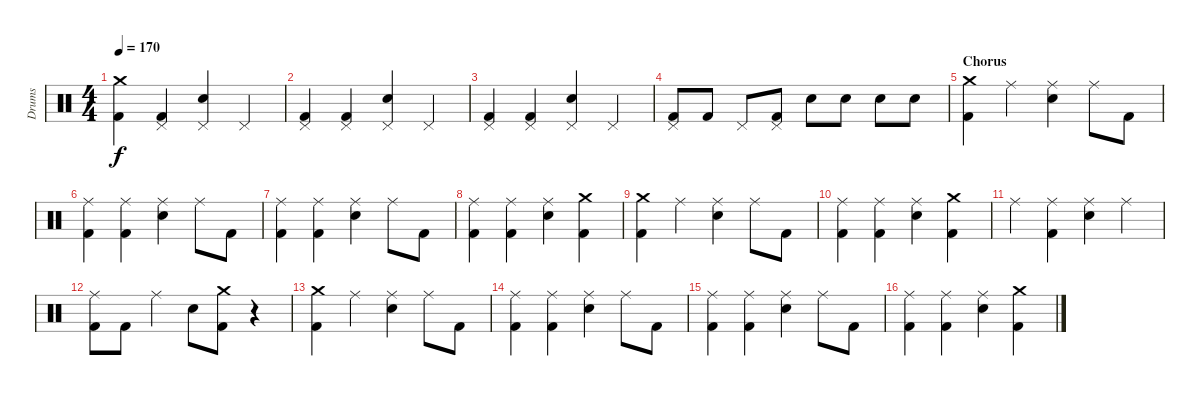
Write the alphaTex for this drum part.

\track ("Drums" "Drums") {instrument percussion}
\staff {score}
\articulation defaults
\ts (4 4)
\tempo 170
\clef neutral
\ks c
("Crash medium (hit)" "Kick (hit) 2").4{dy f} ("Pedal Hi-Hat (hit)" "Kick (hit) 2").4 ("Pedal Hi-Hat (hit)" "Electric Snare (hit)").4 "Pedal Hi-Hat (hit)".4 |
("Pedal Hi-Hat (hit)" "Kick (hit) 2").4 ("Pedal Hi-Hat (hit)" "Kick (hit) 2").4 ("Pedal Hi-Hat (hit)" "Electric Snare (hit)").4 "Pedal Hi-Hat (hit)".4 |
("Pedal Hi-Hat (hit)" "Kick (hit) 2").4 ("Pedal Hi-Hat (hit)" "Kick (hit) 2").4 ("Pedal Hi-Hat (hit)" "Electric Snare (hit)").4 "Pedal Hi-Hat (hit)".4 |
("Pedal Hi-Hat (hit)" "Kick (hit) 2").8 "Kick (hit) 2".8 "Pedal Hi-Hat (hit)".8 ("Pedal Hi-Hat (hit)" "Kick (hit) 2").8 "Electric Snare (hit)".8 "Electric Snare (hit)".8 "Electric Snare (hit)".8 "Electric Snare (hit)".8 |
\section ("" "Chorus")
("Crash medium (hit)" "Kick (hit) 2").4 "Ride (middle)".4 ("Ride (middle)" "Electric Snare (hit)").4 "Ride (middle)".8 "Kick (hit) 2".8 |
("Ride (middle)" "Kick (hit) 2").4 ("Ride (middle)" "Kick (hit) 2").4 ("Ride (middle)" "Electric Snare (hit)").4 "Ride (middle)".8 "Kick (hit) 2".8 |
("Ride (middle)" "Kick (hit) 2").4 ("Ride (middle)" "Kick (hit) 2").4 ("Ride (middle)" "Electric Snare (hit)").4 "Ride (middle)".8 "Kick (hit) 2".8 |
("Ride (middle)" "Kick (hit) 2").4 ("Ride (middle)" "Kick (hit) 2").4 ("Ride (middle)" "Electric Snare (hit)").4 ("Crash medium (hit)" "Kick (hit) 2").4 |
("Crash medium (hit)" "Kick (hit) 2").4 "Ride (middle)".4 ("Ride (middle)" "Electric Snare (hit)").4 "Ride (middle)".8 "Kick (hit) 2".8 |
("Ride (middle)" "Kick (hit) 2").4 ("Ride (middle)" "Kick (hit) 2").4 ("Ride (middle)" "Electric Snare (hit)").4 ("Crash medium (hit)" "Kick (hit) 2").4 |
"Ride (middle)".4 ("Ride (middle)" "Kick (hit) 2").4 ("Ride (middle)" "Electric Snare (hit)").4 "Ride (middle)".4 |
("Ride (middle)" "Kick (hit) 2").8 "Kick (hit) 2".8 "Ride (middle)".4 "Electric Snare (hit)".8 ("Crash medium (hit)" "Kick (hit) 2").8 r.4 |
("Crash medium (hit)" "Kick (hit) 2").4 "Ride (middle)".4 ("Ride (middle)" "Electric Snare (hit)").4 "Ride (middle)".8 "Kick (hit) 2".8 |
("Ride (middle)" "Kick (hit) 2").4 ("Ride (middle)" "Kick (hit) 2").4 ("Ride (middle)" "Electric Snare (hit)").4 "Ride (middle)".8 "Kick (hit) 2".8 |
("Ride (middle)" "Kick (hit) 2").4 ("Ride (middle)" "Kick (hit) 2").4 ("Ride (middle)" "Electric Snare (hit)").4 "Ride (middle)".8 "Kick (hit) 2".8 |
("Ride (middle)" "Kick (hit) 2").4 ("Ride (middle)" "Kick (hit) 2").4 ("Ride (middle)" "Electric Snare (hit)").4 ("Crash medium (hit)" "Kick (hit) 2").4
